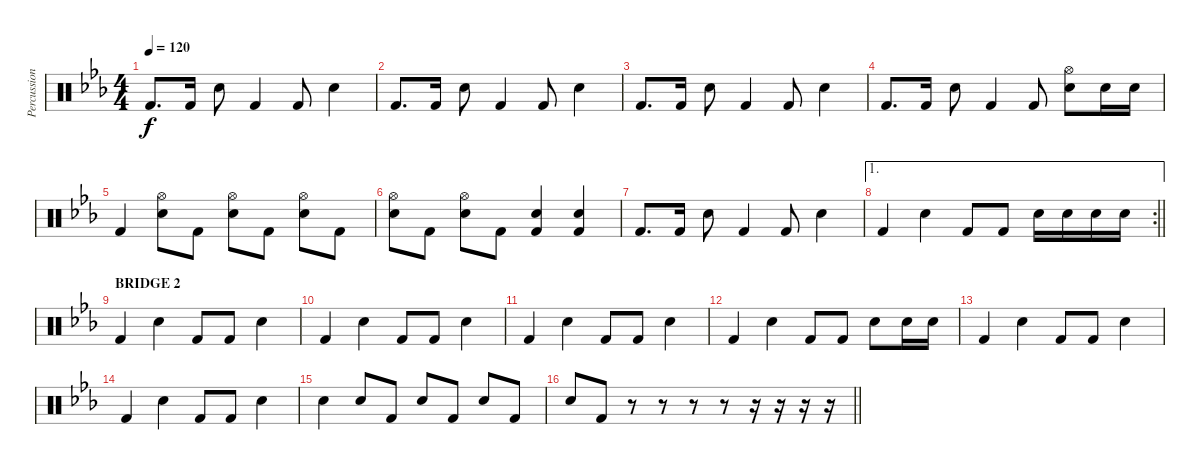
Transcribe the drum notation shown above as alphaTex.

\track ("Percussion" "Percussion") {instrument percussion}
\staff {score}
\articulation defaults
\ts (4 4)
\tempo 120
\clef neutral
\ks cminor "Kick (hit) 2".8{d dy f} "Kick (hit) 2".16 "Snare (hit) 2".8 "Kick (hit) 2".4 "Kick (hit) 2".8 "Snare (hit) 2".4
|
"Kick (hit) 2".8{d} "Kick (hit) 2".16 "Snare (hit) 2".8 "Kick (hit) 2".4 "Kick (hit) 2".8 "Snare (hit) 2".4 |
"Kick (hit) 2".8{d} "Kick (hit) 2".16 "Snare (hit) 2".8 "Kick (hit) 2".4 "Kick (hit) 2".8 "Snare (hit) 2".4 |
"Kick (hit) 2".8{d} "Kick (hit) 2".16 "Snare (hit) 2".8 "Kick (hit) 2".4 "Kick (hit) 2".8 ("Snare (hit) 2" "Hi-Hat (open)").8 "Snare (hit) 2".16 "Snare (hit) 2".16 |
"Kick (hit) 2".4 ("Snare (hit) 2" "Hi-Hat (open)").8 "Kick (hit) 2".8 ("Snare (hit) 2" "Hi-Hat (open)").8 "Kick (hit) 2".8 ("Snare (hit) 2" "Hi-Hat (open)").8 "Kick (hit) 2".8 |
("Snare (hit) 2" "Hi-Hat (open)").8 "Kick (hit) 2".8 ("Snare (hit) 2" "Hi-Hat (open)").8 "Kick (hit) 2".8 ("Snare (hit) 2" "Kick (hit) 2").4 ("Snare (hit) 2" "Kick (hit) 2").4 |
"Kick (hit) 2".8{d} "Kick (hit) 2".16 "Snare (hit) 2".8 "Kick (hit) 2".4 "Kick (hit) 2".8 "Snare (hit) 2".4 |
\ae 1
\rc 2
\barLineRight lightlight "Kick (hit) 2".4 "Snare (hit) 2".4 "Kick (hit) 2".8 "Kick (hit) 2".8 "Snare (hit) 2".16 "Snare (hit) 2".16 "Snare (hit) 2".16 "Snare (hit) 2".16
|
\section ("" "BRIDGE 2")
"Kick (hit) 2".4 "Snare (hit) 2".4 "Kick (hit) 2".8 "Kick (hit) 2".8 "Snare (hit) 2".4 |
"Kick (hit) 2".4 "Snare (hit) 2".4 "Kick (hit) 2".8 "Kick (hit) 2".8 "Snare (hit) 2".4 |
"Kick (hit) 2".4 "Snare (hit) 2".4 "Kick (hit) 2".8 "Kick (hit) 2".8 "Snare (hit) 2".4 |
"Kick (hit) 2".4 "Snare (hit) 2".4 "Kick (hit) 2".8 "Kick (hit) 2".8 "Snare (hit) 2".8 "Snare (hit) 2".16 "Snare (hit) 2".16 |
"Kick (hit) 2".4 "Snare (hit) 2".4 "Kick (hit) 2".8 "Kick (hit) 2".8 "Snare (hit) 2".4 |
"Kick (hit) 2".4 "Snare (hit) 2".4 "Kick (hit) 2".8 "Kick (hit) 2".8 "Snare (hit) 2".4 |
"Snare (hit) 2".4 "Snare (hit) 2".8 "Kick (hit) 2".8 "Snare (hit) 2".8 "Kick (hit) 2".8 "Snare (hit) 2".8 "Kick (hit) 2".8 |
\barLineRight lightlight "Snare (hit) 2".8 "Kick (hit) 2".8
r.8 r.8 r.8 r.8 r.16 r.16 r.16 r.16
